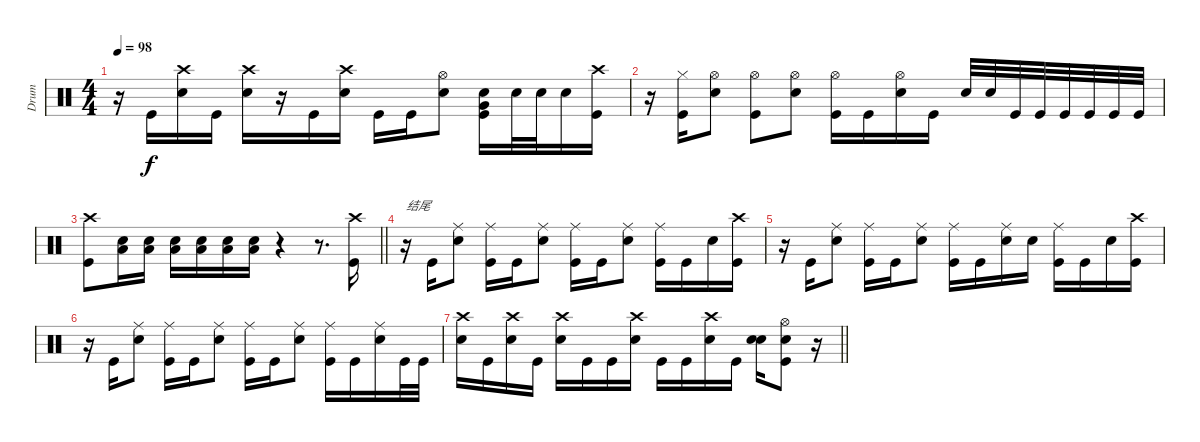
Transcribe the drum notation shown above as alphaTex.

\track ("Drum" "Drum") {instrument percussion}
\staff {score}
\articulation defaults
\ts (4 4)
\tempo 98
\clef neutral
\ks c
r.16{dy f} "Kick (hit)".16 ("Snare (hit) 2" "Crash high (hit)").16 "Kick (hit)".16 ("Snare (hit) 2" "Crash high (hit)").16 r.16 "Kick (hit)".16 ("Snare (hit) 2" "Crash high (hit)").16 "Kick (hit)".16 "Kick (hit)".16 ("Snare (hit) 2" "Hi-Hat (open)").8 ("Snare (hit) 2" "Kick (hit)" "Very Low Tom (hit)").16 "Snare (hit) 2".32 "Snare (hit) 2".32 "Snare (hit) 2".16 ("Kick (hit)" "Crash high (hit)").16 |
r.16 ("Kick (hit)" "Hi-Hat (closed)").16 ("Snare (hit) 2" "Hi-Hat (open)").8 ("Hi-Hat (open)" "Kick (hit)").8 ("Snare (hit) 2" "Hi-Hat (open)").8 ("Kick (hit)" "Hi-Hat (open)").16 "Kick (hit)".16 ("Snare (hit) 2" "Hi-Hat (open)").16 "Kick (hit)".16 "Snare (hit) 2".32 "Snare (hit) 2".32 "Kick (hit)".32 "Kick (hit)".32 "Kick (hit)".32 "Kick (hit)".32 "Kick (hit)".32 "Kick (hit)".32 |
\barLineRight lightlight
("Crash high (hit)" "Kick (hit)").8 ("Snare (hit) 2" "Low Floor Tom (hit)").16 ("Snare (hit) 2" "Low Floor Tom (hit)").16 ("Snare (hit) 2" "Low Floor Tom (hit)").16 ("Snare (hit) 2" "Low Floor Tom (hit)").16 ("Snare (hit) 2" "Low Floor Tom (hit)").16 ("Snare (hit) 2" "Low Floor Tom (hit)").16 r.4 r.8{d} ("Kick (hit)" "Crash high (hit)").16 |
r.16{txt "结尾"} "Kick (hit)".16 ("Snare (hit) 2" "Ride (middle)").8 ("Kick (hit)" "Ride (middle)").16 "Kick (hit)".16 ("Snare (hit) 2" "Ride (middle)").8 ("Ride (middle)" "Kick (hit)").16 "Kick (hit)".16 ("Snare (hit) 2" "Ride (middle)").8 ("Ride (middle)" "Kick (hit)").16 "Kick (hit)".16 "Snare (hit) 2".16 ("Crash high (hit)" "Kick (hit)").16 |
r.16 "Kick (hit)".16 ("Snare (hit) 2" "Ride (middle)").8 ("Kick (hit)" "Ride (middle)").16 "Kick (hit)".16 ("Snare (hit) 2" "Ride (middle)").8 ("Kick (hit)" "Ride (middle)").16 "Kick (hit)".16 ("Snare (hit) 2" "Ride (middle)").16 "Snare (hit) 2".16 ("Ride (middle)" "Kick (hit)").16 "Kick (hit)".16 "Snare (hit) 2".16 ("Crash high (hit)" "Kick (hit)").16 |
r.16 "Kick (hit)".16 ("Snare (hit) 2" "Ride (middle)").8 ("Kick (hit)" "Ride (middle)").16 "Kick (hit)".16 ("Snare (hit) 2" "Ride (middle)").8 ("Ride (middle)" "Kick (hit)").16 "Kick (hit)".16 ("Snare (hit) 2" "Ride (middle)").8 ("Ride (middle)" "Kick (hit)").16 "Kick (hit)".16 ("Snare (hit) 2" "Ride (middle)").16 "Kick (hit)".32 "Kick (hit)".32 |
\barLineRight lightlight
("Crash high (hit)" "Snare (hit) 2").16 "Kick (hit)".16 ("Snare (hit) 2" "Crash high (hit)").16 "Kick (hit)".16 ("Snare (hit) 2" "Crash high (hit)").16 "Kick (hit)".16 "Kick (hit)".16 ("Snare (hit) 2" "Crash high (hit)").16 "Kick (hit)".16 "Kick (hit)".16 ("Snare (hit) 2" "Crash high (hit)").16 "Kick (hit)".16 ("Snare (hit) 2" "Snare (hit) 2").16 ("Snare (hit) 2" "Hi-Hat (open)" "Kick (hit)").8 r.16
